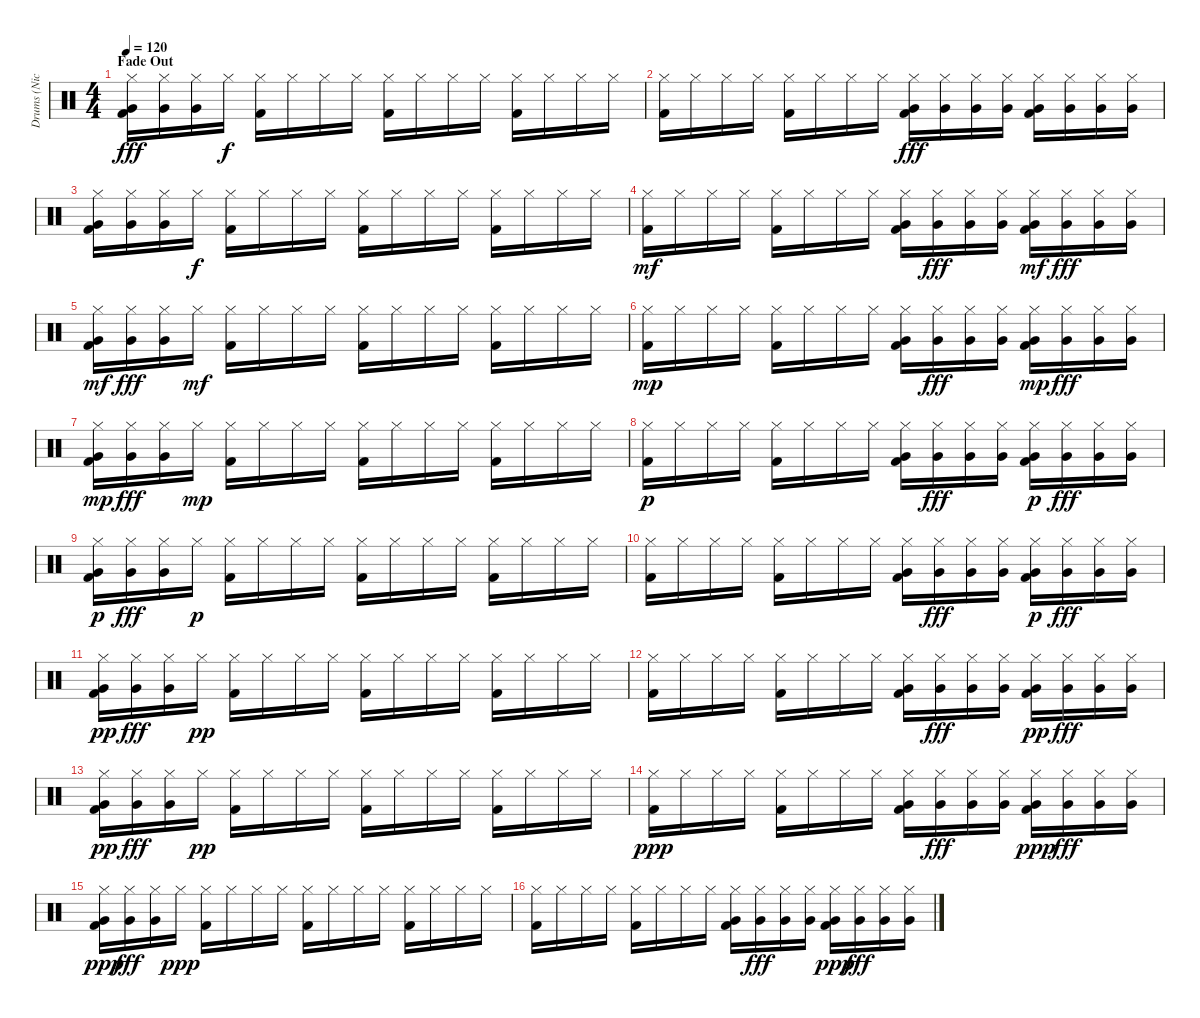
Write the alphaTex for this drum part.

\track ("Drums (Nick Menza)" "Drums (Nic") {instrument percussion}
\staff {score}
\articulation defaults
\ts (4 4)
\section ("" "Fade Out")
\tempo 120
\clef neutral
\ks c
("Hi-Hat (closed)" "Very Low Tom (hit)" "Kick (hit) 2").16{dy fff} ("Hi-Hat (closed)" "Very Low Tom (hit)").16 ("Hi-Hat (closed)" "Very Low Tom (hit)").16 "Hi-Hat (closed)".16{dy f} ("Hi-Hat (closed)" "Kick (hit) 2").16 "Hi-Hat (closed)".16 "Hi-Hat (closed)".16 "Hi-Hat (closed)".16 ("Hi-Hat (closed)" "Kick (hit) 2").16 "Hi-Hat (closed)".16 "Hi-Hat (closed)".16 "Hi-Hat (closed)".16 ("Hi-Hat (closed)" "Kick (hit) 2").16 "Hi-Hat (closed)".16 "Hi-Hat (closed)".16 "Hi-Hat (closed)".16 |
("Hi-Hat (closed)" "Kick (hit) 2").16 "Hi-Hat (closed)".16 "Hi-Hat (closed)".16 "Hi-Hat (closed)".16 ("Hi-Hat (closed)" "Kick (hit) 2").16 "Hi-Hat (closed)".16 "Hi-Hat (closed)".16 "Hi-Hat (closed)".16 ("Hi-Hat (closed)" "Very Low Tom (hit)" "Kick (hit) 2").16{dy fff} ("Hi-Hat (closed)" "Very Low Tom (hit)").16 ("Hi-Hat (closed)" "Very Low Tom (hit)").16 ("Hi-Hat (closed)" "Very Low Tom (hit)").16 ("Hi-Hat (closed)" "Very Low Tom (hit)" "Kick (hit) 2").16 ("Hi-Hat (closed)" "Very Low Tom (hit)").16 ("Hi-Hat (closed)" "Very Low Tom (hit)").16 ("Hi-Hat (closed)" "Very Low Tom (hit)").16 |
("Hi-Hat (closed)" "Very Low Tom (hit)" "Kick (hit) 2").16 ("Hi-Hat (closed)" "Very Low Tom (hit)").16 ("Hi-Hat (closed)" "Very Low Tom (hit)").16 "Hi-Hat (closed)".16{dy f} ("Hi-Hat (closed)" "Kick (hit) 2").16 "Hi-Hat (closed)".16 "Hi-Hat (closed)".16 "Hi-Hat (closed)".16 ("Hi-Hat (closed)" "Kick (hit) 2").16 "Hi-Hat (closed)".16 "Hi-Hat (closed)".16 "Hi-Hat (closed)".16 ("Hi-Hat (closed)" "Kick (hit) 2").16 "Hi-Hat (closed)".16 "Hi-Hat (closed)".16 "Hi-Hat (closed)".16 |
("Hi-Hat (closed)" "Kick (hit) 2").16{dy mf} "Hi-Hat (closed)".16 "Hi-Hat (closed)".16 "Hi-Hat (closed)".16 ("Hi-Hat (closed)" "Kick (hit) 2").16 "Hi-Hat (closed)".16 "Hi-Hat (closed)".16 "Hi-Hat (closed)".16 ("Hi-Hat (closed)" "Very Low Tom (hit)" "Kick (hit) 2").16 ("Hi-Hat (closed)" "Very Low Tom (hit)").16{dy fff} ("Hi-Hat (closed)" "Very Low Tom (hit)").16 ("Hi-Hat (closed)" "Very Low Tom (hit)").16 ("Hi-Hat (closed)" "Very Low Tom (hit)" "Kick (hit) 2").16{dy mf} ("Hi-Hat (closed)" "Very Low Tom (hit)").16{dy fff} ("Hi-Hat (closed)" "Very Low Tom (hit)").16 ("Hi-Hat (closed)" "Very Low Tom (hit)").16 |
("Hi-Hat (closed)" "Very Low Tom (hit)" "Kick (hit) 2").16{dy mf} ("Hi-Hat (closed)" "Very Low Tom (hit)").16{dy fff} ("Hi-Hat (closed)" "Very Low Tom (hit)").16 "Hi-Hat (closed)".16{dy mf} ("Hi-Hat (closed)" "Kick (hit) 2").16 "Hi-Hat (closed)".16 "Hi-Hat (closed)".16 "Hi-Hat (closed)".16 ("Hi-Hat (closed)" "Kick (hit) 2").16 "Hi-Hat (closed)".16 "Hi-Hat (closed)".16 "Hi-Hat (closed)".16 ("Hi-Hat (closed)" "Kick (hit) 2").16 "Hi-Hat (closed)".16 "Hi-Hat (closed)".16 "Hi-Hat (closed)".16 |
("Hi-Hat (closed)" "Kick (hit) 2").16{dy mp} "Hi-Hat (closed)".16 "Hi-Hat (closed)".16 "Hi-Hat (closed)".16 ("Hi-Hat (closed)" "Kick (hit) 2").16 "Hi-Hat (closed)".16 "Hi-Hat (closed)".16 "Hi-Hat (closed)".16 ("Hi-Hat (closed)" "Very Low Tom (hit)" "Kick (hit) 2").16 ("Hi-Hat (closed)" "Very Low Tom (hit)").16{dy fff} ("Hi-Hat (closed)" "Very Low Tom (hit)").16 ("Hi-Hat (closed)" "Very Low Tom (hit)").16 ("Hi-Hat (closed)" "Very Low Tom (hit)" "Kick (hit) 2").16{dy mp} ("Hi-Hat (closed)" "Very Low Tom (hit)").16{dy fff} ("Hi-Hat (closed)" "Very Low Tom (hit)").16 ("Hi-Hat (closed)" "Very Low Tom (hit)").16 |
("Hi-Hat (closed)" "Very Low Tom (hit)" "Kick (hit) 2").16{dy mp} ("Hi-Hat (closed)" "Very Low Tom (hit)").16{dy fff} ("Hi-Hat (closed)" "Very Low Tom (hit)").16 "Hi-Hat (closed)".16{dy mp} ("Hi-Hat (closed)" "Kick (hit) 2").16 "Hi-Hat (closed)".16 "Hi-Hat (closed)".16 "Hi-Hat (closed)".16 ("Hi-Hat (closed)" "Kick (hit) 2").16 "Hi-Hat (closed)".16 "Hi-Hat (closed)".16 "Hi-Hat (closed)".16 ("Hi-Hat (closed)" "Kick (hit) 2").16 "Hi-Hat (closed)".16 "Hi-Hat (closed)".16 "Hi-Hat (closed)".16 |
("Hi-Hat (closed)" "Kick (hit) 2").16{dy p} "Hi-Hat (closed)".16 "Hi-Hat (closed)".16 "Hi-Hat (closed)".16 ("Hi-Hat (closed)" "Kick (hit) 2").16 "Hi-Hat (closed)".16 "Hi-Hat (closed)".16 "Hi-Hat (closed)".16 ("Hi-Hat (closed)" "Very Low Tom (hit)" "Kick (hit) 2").16 ("Hi-Hat (closed)" "Very Low Tom (hit)").16{dy fff} ("Hi-Hat (closed)" "Very Low Tom (hit)").16 ("Hi-Hat (closed)" "Very Low Tom (hit)").16 ("Hi-Hat (closed)" "Very Low Tom (hit)" "Kick (hit) 2").16{dy p} ("Hi-Hat (closed)" "Very Low Tom (hit)").16{dy fff} ("Hi-Hat (closed)" "Very Low Tom (hit)").16 ("Hi-Hat (closed)" "Very Low Tom (hit)").16 |
("Hi-Hat (closed)" "Very Low Tom (hit)" "Kick (hit) 2").16{dy p} ("Hi-Hat (closed)" "Very Low Tom (hit)").16{dy fff} ("Hi-Hat (closed)" "Very Low Tom (hit)").16 "Hi-Hat (closed)".16{dy p} ("Hi-Hat (closed)" "Kick (hit) 2").16 "Hi-Hat (closed)".16 "Hi-Hat (closed)".16 "Hi-Hat (closed)".16 ("Hi-Hat (closed)" "Kick (hit) 2").16 "Hi-Hat (closed)".16 "Hi-Hat (closed)".16 "Hi-Hat (closed)".16 ("Hi-Hat (closed)" "Kick (hit) 2").16 "Hi-Hat (closed)".16 "Hi-Hat (closed)".16 "Hi-Hat (closed)".16 |
("Hi-Hat (closed)" "Kick (hit) 2").16 "Hi-Hat (closed)".16 "Hi-Hat (closed)".16 "Hi-Hat (closed)".16 ("Hi-Hat (closed)" "Kick (hit) 2").16 "Hi-Hat (closed)".16 "Hi-Hat (closed)".16 "Hi-Hat (closed)".16 ("Hi-Hat (closed)" "Very Low Tom (hit)" "Kick (hit) 2").16 ("Hi-Hat (closed)" "Very Low Tom (hit)").16{dy fff} ("Hi-Hat (closed)" "Very Low Tom (hit)").16 ("Hi-Hat (closed)" "Very Low Tom (hit)").16 ("Hi-Hat (closed)" "Very Low Tom (hit)" "Kick (hit) 2").16{dy p} ("Hi-Hat (closed)" "Very Low Tom (hit)").16{dy fff} ("Hi-Hat (closed)" "Very Low Tom (hit)").16 ("Hi-Hat (closed)" "Very Low Tom (hit)").16 |
("Hi-Hat (closed)" "Very Low Tom (hit)" "Kick (hit) 2").16{dy pp} ("Hi-Hat (closed)" "Very Low Tom (hit)").16{dy fff} ("Hi-Hat (closed)" "Very Low Tom (hit)").16 "Hi-Hat (closed)".16{dy pp} ("Hi-Hat (closed)" "Kick (hit) 2").16 "Hi-Hat (closed)".16 "Hi-Hat (closed)".16 "Hi-Hat (closed)".16 ("Hi-Hat (closed)" "Kick (hit) 2").16 "Hi-Hat (closed)".16 "Hi-Hat (closed)".16 "Hi-Hat (closed)".16 ("Hi-Hat (closed)" "Kick (hit) 2").16 "Hi-Hat (closed)".16 "Hi-Hat (closed)".16 "Hi-Hat (closed)".16 |
("Hi-Hat (closed)" "Kick (hit) 2").16 "Hi-Hat (closed)".16 "Hi-Hat (closed)".16 "Hi-Hat (closed)".16 ("Hi-Hat (closed)" "Kick (hit) 2").16 "Hi-Hat (closed)".16 "Hi-Hat (closed)".16 "Hi-Hat (closed)".16 ("Hi-Hat (closed)" "Very Low Tom (hit)" "Kick (hit) 2").16 ("Hi-Hat (closed)" "Very Low Tom (hit)").16{dy fff} ("Hi-Hat (closed)" "Very Low Tom (hit)").16 ("Hi-Hat (closed)" "Very Low Tom (hit)").16 ("Hi-Hat (closed)" "Very Low Tom (hit)" "Kick (hit) 2").16{dy pp} ("Hi-Hat (closed)" "Very Low Tom (hit)").16{dy fff} ("Hi-Hat (closed)" "Very Low Tom (hit)").16 ("Hi-Hat (closed)" "Very Low Tom (hit)").16 |
("Hi-Hat (closed)" "Very Low Tom (hit)" "Kick (hit) 2").16{dy pp} ("Hi-Hat (closed)" "Very Low Tom (hit)").16{dy fff} ("Hi-Hat (closed)" "Very Low Tom (hit)").16 "Hi-Hat (closed)".16{dy pp} ("Hi-Hat (closed)" "Kick (hit) 2").16 "Hi-Hat (closed)".16 "Hi-Hat (closed)".16 "Hi-Hat (closed)".16 ("Hi-Hat (closed)" "Kick (hit) 2").16 "Hi-Hat (closed)".16 "Hi-Hat (closed)".16 "Hi-Hat (closed)".16 ("Hi-Hat (closed)" "Kick (hit) 2").16 "Hi-Hat (closed)".16 "Hi-Hat (closed)".16 "Hi-Hat (closed)".16 |
("Hi-Hat (closed)" "Kick (hit) 2").16{dy ppp} "Hi-Hat (closed)".16 "Hi-Hat (closed)".16 "Hi-Hat (closed)".16 ("Hi-Hat (closed)" "Kick (hit) 2").16 "Hi-Hat (closed)".16 "Hi-Hat (closed)".16 "Hi-Hat (closed)".16 ("Hi-Hat (closed)" "Very Low Tom (hit)" "Kick (hit) 2").16 ("Hi-Hat (closed)" "Very Low Tom (hit)").16{dy fff} ("Hi-Hat (closed)" "Very Low Tom (hit)").16 ("Hi-Hat (closed)" "Very Low Tom (hit)").16 ("Hi-Hat (closed)" "Very Low Tom (hit)" "Kick (hit) 2").16{dy ppp} ("Hi-Hat (closed)" "Very Low Tom (hit)").16{dy fff} ("Hi-Hat (closed)" "Very Low Tom (hit)").16 ("Hi-Hat (closed)" "Very Low Tom (hit)").16 |
("Hi-Hat (closed)" "Very Low Tom (hit)" "Kick (hit) 2").16{dy ppp} ("Hi-Hat (closed)" "Very Low Tom (hit)").16{dy fff} ("Hi-Hat (closed)" "Very Low Tom (hit)").16 "Hi-Hat (closed)".16{dy ppp} ("Hi-Hat (closed)" "Kick (hit) 2").16 "Hi-Hat (closed)".16 "Hi-Hat (closed)".16 "Hi-Hat (closed)".16 ("Hi-Hat (closed)" "Kick (hit) 2").16 "Hi-Hat (closed)".16 "Hi-Hat (closed)".16 "Hi-Hat (closed)".16 ("Hi-Hat (closed)" "Kick (hit) 2").16 "Hi-Hat (closed)".16 "Hi-Hat (closed)".16 "Hi-Hat (closed)".16 |
("Hi-Hat (closed)" "Kick (hit) 2").16 "Hi-Hat (closed)".16 "Hi-Hat (closed)".16 "Hi-Hat (closed)".16 ("Hi-Hat (closed)" "Kick (hit) 2").16 "Hi-Hat (closed)".16 "Hi-Hat (closed)".16 "Hi-Hat (closed)".16 ("Hi-Hat (closed)" "Very Low Tom (hit)" "Kick (hit) 2").16 ("Hi-Hat (closed)" "Very Low Tom (hit)").16{dy fff} ("Hi-Hat (closed)" "Very Low Tom (hit)").16 ("Hi-Hat (closed)" "Very Low Tom (hit)").16 ("Hi-Hat (closed)" "Very Low Tom (hit)" "Kick (hit) 2").16{dy ppp} ("Hi-Hat (closed)" "Very Low Tom (hit)").16{dy fff} ("Hi-Hat (closed)" "Very Low Tom (hit)").16 ("Hi-Hat (closed)" "Very Low Tom (hit)").16
